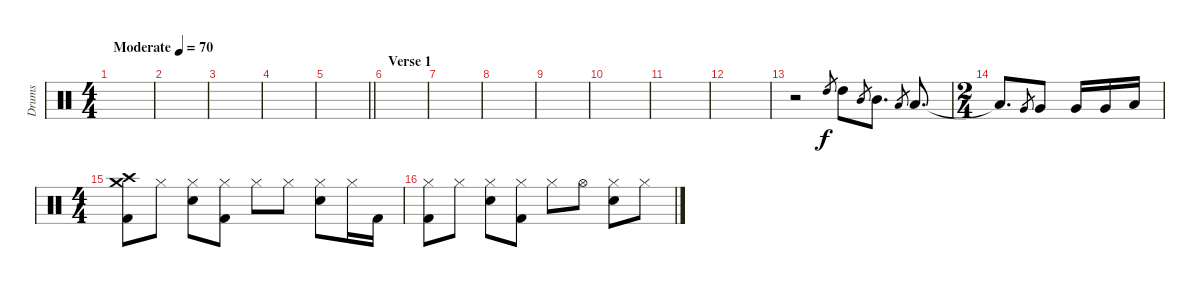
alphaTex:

\track ("Drums" "Drums") {instrument percussion}
\staff {score}
\articulation defaults
\ts (4 4)
\tempo (70 "Moderate")
\clef neutral
\ks c
|
|
|
|
\barLineRight lightlight
|
\section ("" "Verse 1")
|
|
|
|
|
|
|
r.2 "High Tom (hit)".8{gr} "High Tom (hit)".8 "Mid Tom (hit)".8{gr} "Mid Tom (hit)".8{d} "Low Tom (hit)".8{gr} "Low Tom (hit)".8{d} |
\ts (2 4)
"Low Tom (hit)"{t}.8{d} "Very Low Tom (hit)".8{gr} "Very Low Tom (hit)".8 "Very Low Tom (hit)".16 "Very Low Tom (hit)".16 "Low Floor Tom (hit)".16 |
\ts (4 4)
("Crash high (hit)" "Crash medium (hit)" "Kick (hit) 2").8 "Hi-Hat (closed)".8 ("Hi-Hat (closed)" "Snare (hit) 2").8 ("Hi-Hat (closed)" "Kick (hit) 2").8 "Hi-Hat (closed)".8 "Hi-Hat (closed)".8 ("Hi-Hat (closed)" "Snare (hit) 2").8 "Hi-Hat (closed)".16 "Kick (hit) 2".16 |
("Hi-Hat (closed)" "Kick (hit) 2").8 "Hi-Hat (closed)".8 ("Hi-Hat (closed)" "Snare (hit) 2").8 ("Hi-Hat (closed)" "Kick (hit) 2").8 "Hi-Hat (closed)".8 "Hi-Hat (open)".8 ("Hi-Hat (closed)" "Snare (hit) 2").8 "Hi-Hat (closed)".8
